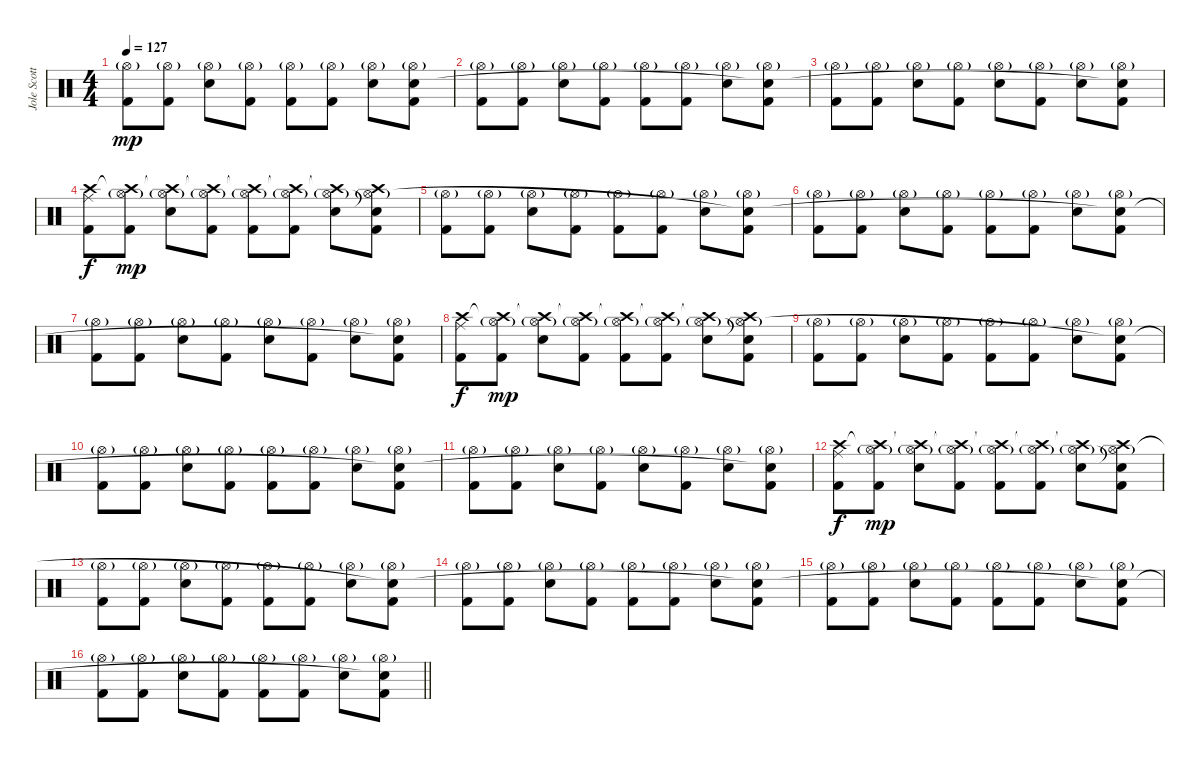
\track ("Jole Scott Key" "Jole Scott") {instrument percussion}
\staff {score}
\articulation defaults
\ts (4 4)
\tempo 127
\clef neutral
\ks c
("Kick (hit) 2" "Hi-Hat (open)"{g}).8{dy mp} ("Kick (hit) 2" "Hi-Hat (open)"{g}).8 ("Electric Snare (hit)" "Hi-Hat (open)"{g}).8 ("Kick (hit) 2" "Hi-Hat (open)"{g}).8 ("Kick (hit) 2" "Hi-Hat (open)"{g}).8 ("Kick (hit) 2" "Hi-Hat (open)"{g}).8 ("Electric Snare (hit)" "Hi-Hat (open)"{g}).8 ("Kick (hit) 2" "Hi-Hat (open)"{g} "Snare (hit)"{t}).8 |
("Kick (hit) 2" "Hi-Hat (open)"{g}).8 ("Kick (hit) 2" "Hi-Hat (open)"{g}).8 ("Electric Snare (hit)" "Hi-Hat (open)"{g}).8 ("Kick (hit) 2" "Hi-Hat (open)"{g}).8 ("Kick (hit) 2" "Hi-Hat (open)"{g}).8 ("Kick (hit) 2" "Hi-Hat (open)"{g}).8 ("Electric Snare (hit)" "Hi-Hat (open)"{g}).8 ("Kick (hit) 2" "Hi-Hat (open)"{g} "Snare (hit)"{t}).8 |
("Kick (hit) 2" "Hi-Hat (open)"{g}).8 ("Kick (hit) 2" "Hi-Hat (open)"{g}).8 ("Electric Snare (hit)" "Hi-Hat (open)"{g}).8 ("Kick (hit) 2" "Hi-Hat (open)"{g}).8 ("Electric Snare (hit)" "Hi-Hat (open)"{g}).8 ("Kick (hit) 2" "Hi-Hat (open)"{g}).8 ("Electric Snare (hit)" "Hi-Hat (open)"{g}).8 ("Kick (hit) 2" "Hi-Hat (open)"{g} "Snare (hit)"{t}).8 |
("Kick (hit) 2" "Ride (middle)" "Crash high (hit)").8{dy f} ("Kick (hit) 2" "Hi-Hat (open)"{g} "Crash high (hit)"{t}).8{dy mp} ("Electric Snare (hit)" "Hi-Hat (open)"{g} "Crash high (hit)"{t}).8 ("Kick (hit) 2" "Hi-Hat (open)"{g} "Crash high (hit)"{t}).8 ("Kick (hit) 2" "Hi-Hat (open)"{g} "Crash high (hit)"{t}).8 ("Kick (hit) 2" "Hi-Hat (open)"{g} "Crash high (hit)"{t}).8 ("Electric Snare (hit)" "Hi-Hat (open)"{g} "Crash high (hit)"{t}).8 ("Kick (hit) 2" "Snare (hit)"{t} "Hi-Hat (open)"{g} "Crash high (hit)").8 |
("Kick (hit) 2" "Hi-Hat (open)"{g}).8 ("Kick (hit) 2" "Hi-Hat (open)"{g}).8 ("Electric Snare (hit)" "Hi-Hat (open)"{g}).8 ("Kick (hit) 2" "Hi-Hat (open)"{g}).8 ("Kick (hit) 2" "Hi-Hat (open)"{g}).8 ("Kick (hit) 2" "Hi-Hat (open)"{g}).8 ("Electric Snare (hit)" "Hi-Hat (open)"{g}).8 ("Kick (hit) 2" "Hi-Hat (open)"{g} "Snare (hit)"{t}).8 |
("Kick (hit) 2" "Hi-Hat (open)"{g}).8 ("Kick (hit) 2" "Hi-Hat (open)"{g}).8 ("Electric Snare (hit)" "Hi-Hat (open)"{g}).8 ("Kick (hit) 2" "Hi-Hat (open)"{g}).8 ("Kick (hit) 2" "Hi-Hat (open)"{g}).8 ("Kick (hit) 2" "Hi-Hat (open)"{g}).8 ("Electric Snare (hit)" "Hi-Hat (open)"{g}).8 ("Kick (hit) 2" "Hi-Hat (open)"{g} "Snare (hit)"{t}).8 |
("Kick (hit) 2" "Hi-Hat (open)"{g}).8 ("Kick (hit) 2" "Hi-Hat (open)"{g}).8 ("Electric Snare (hit)" "Hi-Hat (open)"{g}).8 ("Kick (hit) 2" "Hi-Hat (open)"{g}).8 ("Electric Snare (hit)" "Hi-Hat (open)"{g}).8 ("Kick (hit) 2" "Hi-Hat (open)"{g}).8 ("Electric Snare (hit)" "Hi-Hat (open)"{g}).8 ("Kick (hit) 2" "Hi-Hat (open)"{g} "Snare (hit)"{t}).8 |
("Kick (hit) 2" "Ride (middle)" "Crash high (hit)").8{dy f} ("Kick (hit) 2" "Hi-Hat (open)"{g} "Crash high (hit)"{t}).8{dy mp} ("Electric Snare (hit)" "Hi-Hat (open)"{g} "Crash high (hit)"{t}).8 ("Kick (hit) 2" "Hi-Hat (open)"{g} "Crash high (hit)"{t}).8 ("Kick (hit) 2" "Hi-Hat (open)"{g} "Crash high (hit)"{t}).8 ("Kick (hit) 2" "Hi-Hat (open)"{g} "Crash high (hit)"{t}).8 ("Electric Snare (hit)" "Hi-Hat (open)"{g} "Crash high (hit)"{t}).8 ("Kick (hit) 2" "Snare (hit)"{t} "Hi-Hat (open)"{g} "Crash high (hit)").8 |
("Kick (hit) 2" "Hi-Hat (open)"{g}).8 ("Kick (hit) 2" "Hi-Hat (open)"{g}).8 ("Electric Snare (hit)" "Hi-Hat (open)"{g}).8 ("Kick (hit) 2" "Hi-Hat (open)"{g}).8 ("Kick (hit) 2" "Hi-Hat (open)"{g}).8 ("Kick (hit) 2" "Hi-Hat (open)"{g}).8 ("Electric Snare (hit)" "Hi-Hat (open)"{g}).8 ("Kick (hit) 2" "Hi-Hat (open)"{g} "Snare (hit)"{t}).8 |
("Kick (hit) 2" "Hi-Hat (open)"{g}).8 ("Kick (hit) 2" "Hi-Hat (open)"{g}).8 ("Electric Snare (hit)" "Hi-Hat (open)"{g}).8 ("Kick (hit) 2" "Hi-Hat (open)"{g}).8 ("Kick (hit) 2" "Hi-Hat (open)"{g}).8 ("Kick (hit) 2" "Hi-Hat (open)"{g}).8 ("Electric Snare (hit)" "Hi-Hat (open)"{g}).8 ("Kick (hit) 2" "Hi-Hat (open)"{g} "Snare (hit)"{t}).8 |
("Kick (hit) 2" "Hi-Hat (open)"{g}).8 ("Kick (hit) 2" "Hi-Hat (open)"{g}).8 ("Electric Snare (hit)" "Hi-Hat (open)"{g}).8 ("Kick (hit) 2" "Hi-Hat (open)"{g}).8 ("Electric Snare (hit)" "Hi-Hat (open)"{g}).8 ("Kick (hit) 2" "Hi-Hat (open)"{g}).8 ("Electric Snare (hit)" "Hi-Hat (open)"{g}).8 ("Kick (hit) 2" "Hi-Hat (open)"{g} "Snare (hit)"{t}).8 |
("Kick (hit) 2" "Ride (middle)" "Crash high (hit)").8{dy f} ("Kick (hit) 2" "Hi-Hat (open)"{g} "Crash high (hit)"{t}).8{dy mp} ("Electric Snare (hit)" "Hi-Hat (open)"{g} "Crash high (hit)"{t}).8 ("Kick (hit) 2" "Hi-Hat (open)"{g} "Crash high (hit)"{t}).8 ("Kick (hit) 2" "Hi-Hat (open)"{g} "Crash high (hit)"{t}).8 ("Kick (hit) 2" "Hi-Hat (open)"{g} "Crash high (hit)"{t}).8 ("Electric Snare (hit)" "Hi-Hat (open)"{g} "Crash high (hit)"{t}).8 ("Kick (hit) 2" "Snare (hit)"{t} "Hi-Hat (open)"{g} "Crash high (hit)").8 |
("Kick (hit) 2" "Hi-Hat (open)"{g}).8 ("Kick (hit) 2" "Hi-Hat (open)"{g}).8 ("Electric Snare (hit)" "Hi-Hat (open)"{g}).8 ("Kick (hit) 2" "Hi-Hat (open)"{g}).8 ("Kick (hit) 2" "Hi-Hat (open)"{g}).8 ("Kick (hit) 2" "Hi-Hat (open)"{g}).8 ("Electric Snare (hit)" "Hi-Hat (open)"{g}).8 ("Kick (hit) 2" "Hi-Hat (open)"{g} "Snare (hit)"{t}).8 |
("Kick (hit) 2" "Hi-Hat (open)"{g}).8 ("Kick (hit) 2" "Hi-Hat (open)"{g}).8 ("Electric Snare (hit)" "Hi-Hat (open)"{g}).8 ("Kick (hit) 2" "Hi-Hat (open)"{g}).8 ("Kick (hit) 2" "Hi-Hat (open)"{g}).8 ("Kick (hit) 2" "Hi-Hat (open)"{g}).8 ("Electric Snare (hit)" "Hi-Hat (open)"{g}).8 ("Kick (hit) 2" "Hi-Hat (open)"{g} "Snare (hit)"{t}).8 |
("Kick (hit) 2" "Hi-Hat (open)"{g}).8 ("Kick (hit) 2" "Hi-Hat (open)"{g}).8 ("Electric Snare (hit)" "Hi-Hat (open)"{g}).8 ("Kick (hit) 2" "Hi-Hat (open)"{g}).8 ("Kick (hit) 2" "Hi-Hat (open)"{g}).8 ("Kick (hit) 2" "Hi-Hat (open)"{g}).8 ("Electric Snare (hit)" "Hi-Hat (open)"{g}).8 ("Kick (hit) 2" "Hi-Hat (open)"{g} "Snare (hit)"{t}).8 |
\barLineRight lightlight
("Kick (hit) 2" "Hi-Hat (open)"{g}).8 ("Kick (hit) 2" "Hi-Hat (open)"{g}).8 ("Electric Snare (hit)" "Hi-Hat (open)"{g}).8 ("Kick (hit) 2" "Hi-Hat (open)"{g}).8 ("Kick (hit) 2" "Hi-Hat (open)"{g}).8 ("Kick (hit) 2" "Hi-Hat (open)"{g}).8 ("Electric Snare (hit)" "Hi-Hat (open)"{g}).8 ("Kick (hit) 2" "Hi-Hat (open)"{g} "Snare (hit)"{t}).8
